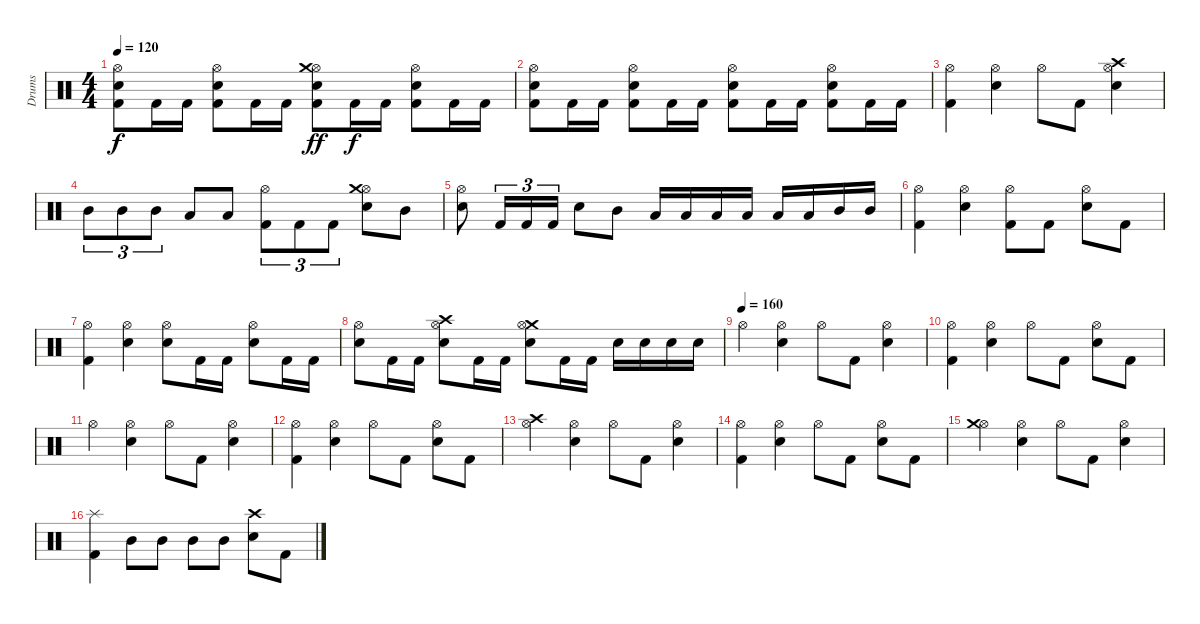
\track ("Drums" "Drums") {instrument percussion}
\staff {score}
\articulation defaults
\ts (4 4)
\tempo 120
\clef neutral
\ks c
("Hi-Hat (open)" "Snare (hit) 2" "Kick (hit) 2").8{dy f} "Kick (hit) 2".16 "Kick (hit) 2".16 ("Hi-Hat (open)" "Snare (hit) 2" "Kick (hit) 2").8 "Kick (hit) 2".16 "Kick (hit) 2".16 ("Hi-Hat (open)" "Crash medium (hit)" "Snare (hit) 2" "Kick (hit) 2").8{dy ff} "Kick (hit) 2".16{dy f} "Kick (hit) 2".16 ("Hi-Hat (open)" "Snare (hit) 2" "Kick (hit) 2").8 "Kick (hit) 2".16 "Kick (hit) 2".16 |
("Hi-Hat (open)" "Snare (hit) 2" "Kick (hit) 2").8 "Kick (hit) 2".16 "Kick (hit) 2".16 ("Hi-Hat (open)" "Snare (hit) 2" "Kick (hit) 2").8 "Kick (hit) 2".16 "Kick (hit) 2".16 ("Hi-Hat (open)" "Snare (hit) 2" "Kick (hit) 2").8 "Kick (hit) 2".16 "Kick (hit) 2".16 ("Hi-Hat (open)" "Snare (hit) 2" "Kick (hit) 2").8 "Kick (hit) 2".16 "Kick (hit) 2".16 |
("Hi-Hat (open)" "Kick (hit) 2").4 ("Hi-Hat (open)" "Snare (hit) 2").4 "Hi-Hat (open)".8 "Kick (hit) 2".8 ("Hi-Hat (open)" "Crash high (hit)" "Snare (hit) 2").4 |
"Mid Tom (hit)".8{tu (3 2)} "Mid Tom (hit)".8{tu (3 2)} "Mid Tom (hit)".8{tu (3 2)} "Low Tom (hit)".8 "Low Tom (hit)".8 ("Hi-Hat (open)" "Kick (hit) 2").8{tu (3 2)} "Kick (hit) 2".8{tu (3 2)} "Kick (hit) 2".8{tu (3 2)} ("Hi-Hat (open)" "Snare (hit) 2" "Crash medium (hit)").8 "Mid Tom (hit)".8 |
("Hi-Hat (open)" "Snare (hit) 2").8 "Kick (hit) 2".16{tu (3 2)} "Kick (hit) 2".16{tu (3 2)} "Kick (hit) 2".16{tu (3 2)} "Snare (hit) 2".8 "Mid Tom (hit)".8 "Low Tom (hit)".16 "Low Tom (hit)".16 "Low Floor Tom (hit)".16 "Low Floor Tom (hit)".16 "Low Tom (hit)".16 "Low Tom (hit)".16 "Mid Tom (hit)".16 "Mid Tom (hit)".16 |
("Hi-Hat (open)" "Kick (hit) 2").4 ("Hi-Hat (open)" "Snare (hit) 2").4 ("Hi-Hat (open)" "Kick (hit) 2").8 "Kick (hit) 2".8 ("Hi-Hat (open)" "Snare (hit) 2").8 "Kick (hit) 2".8 |
("Hi-Hat (open)" "Kick (hit) 2").4 ("Hi-Hat (open)" "Snare (hit) 2").4 ("Hi-Hat (open)" "Snare (hit) 2").8 "Kick (hit) 2".16 "Kick (hit) 2".16 ("Hi-Hat (open)" "Snare (hit) 2").8 "Kick (hit) 2".16 "Kick (hit) 2".16 |
("Hi-Hat (open)" "Snare (hit) 2").8 "Kick (hit) 2".16 "Kick (hit) 2".16 ("Crash high (hit)" "Hi-Hat (open)" "Snare (hit) 2").8 "Kick (hit) 2".16 "Kick (hit) 2".16 ("Crash medium (hit)" "Hi-Hat (open)" "Snare (hit) 2").8 "Kick (hit) 2".16 "Kick (hit) 2".16 "Snare (hit) 2".16 "Snare (hit) 2".16 "Snare (hit) 2".16 "Snare (hit) 2".16 |
\tempo (160)
"Hi-Hat (open)".4 ("Hi-Hat (open)" "Snare (hit) 2").4 "Hi-Hat (open)".8 "Kick (hit) 2".8 ("Hi-Hat (open)" "Snare (hit) 2").4 |
("Hi-Hat (open)" "Kick (hit) 2").4 ("Hi-Hat (open)" "Snare (hit) 2").4 "Hi-Hat (open)".8 "Kick (hit) 2".8 ("Hi-Hat (open)" "Snare (hit) 2").8 "Kick (hit) 2".8 |
"Hi-Hat (open)".4 ("Hi-Hat (open)" "Snare (hit) 2").4 "Hi-Hat (open)".8 "Kick (hit) 2".8 ("Hi-Hat (open)" "Snare (hit) 2").4 |
("Hi-Hat (open)" "Kick (hit) 2").4 ("Hi-Hat (open)" "Snare (hit) 2").4 "Hi-Hat (open)".8 "Kick (hit) 2".8 ("Hi-Hat (open)" "Snare (hit) 2").8 "Kick (hit) 2".8 |
("Hi-Hat (open)" "Crash high (hit)").4 ("Hi-Hat (open)" "Snare (hit) 2").4 "Hi-Hat (open)".8 "Kick (hit) 2".8 ("Hi-Hat (open)" "Snare (hit) 2").4 |
("Hi-Hat (open)" "Kick (hit) 2").4 ("Hi-Hat (open)" "Snare (hit) 2").4 "Hi-Hat (open)".8 "Kick (hit) 2".8 ("Hi-Hat (open)" "Snare (hit) 2").8 "Kick (hit) 2".8 |
("Hi-Hat (open)" "Crash medium (hit)").4 ("Hi-Hat (open)" "Snare (hit) 2").4 "Hi-Hat (open)".8 "Kick (hit) 2".8 ("Hi-Hat (open)" "Snare (hit) 2").4 |
("Splash (hit)" "Kick (hit) 2").4 "Mid Tom (hit)".8 "Mid Tom (hit)".8 "Mid Tom (hit)".8 "Mid Tom (hit)".8 ("Crash high (hit)" "Snare (hit) 2").8 "Kick (hit) 2".8
